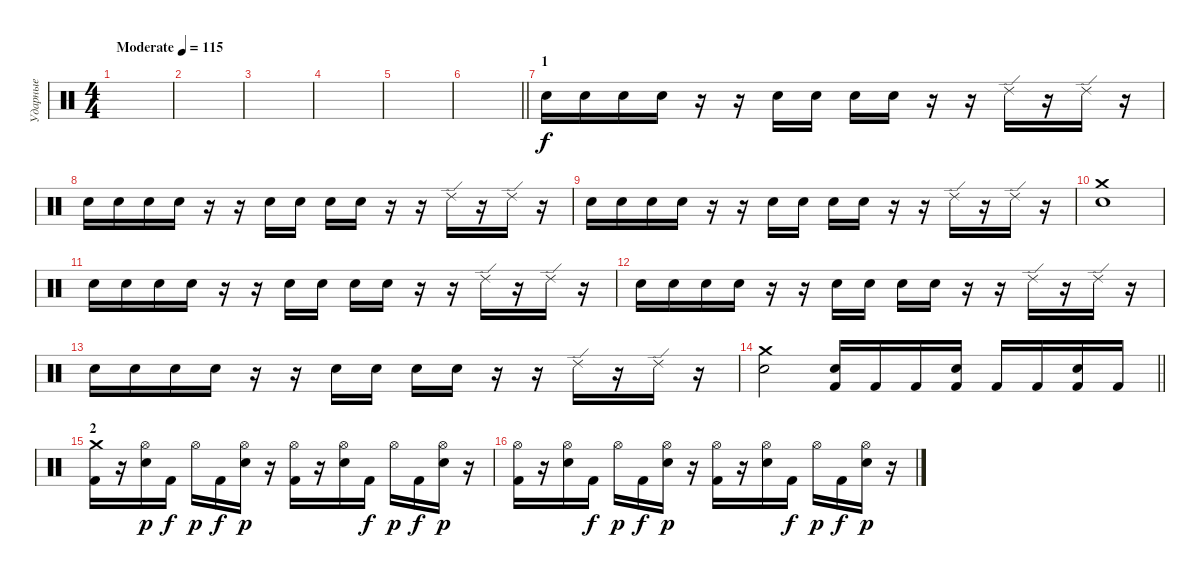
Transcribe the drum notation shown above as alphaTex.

\track ("Ударные" "Ударные") {instrument percussion}
\staff {score}
\articulation defaults
\ts (4 4)
\tempo (115 "Moderate")
\clef neutral
\ks c
|
|
|
|
|
\barLineRight lightlight
|
\section ("" "1")
"Snare (hit) 2".16 "Snare (hit) 2".16 "Snare (hit) 2".16 "Snare (hit) 2".16 r.16 r.16 "Snare (hit) 2".16 "Snare (hit) 2".16 "Snare (hit) 2".16 "Snare (hit) 2".16 r.16 r.16 "Ride (edge) 2".16 r.16 "Ride (edge) 2".16 r.16 |
"Snare (hit) 2".16 "Snare (hit) 2".16 "Snare (hit) 2".16 "Snare (hit) 2".16 r.16 r.16 "Snare (hit) 2".16 "Snare (hit) 2".16 "Snare (hit) 2".16 "Snare (hit) 2".16 r.16 r.16 "Ride (edge) 2".16 r.16 "Ride (edge) 2".16 r.16 |
"Snare (hit) 2".16 "Snare (hit) 2".16 "Snare (hit) 2".16 "Snare (hit) 2".16 r.16 r.16 "Snare (hit) 2".16 "Snare (hit) 2".16 "Snare (hit) 2".16 "Snare (hit) 2".16 r.16 r.16 "Ride (edge) 2".16 r.16 "Ride (edge) 2".16 r.16 |
("Crash medium (hit)" "Snare (hit) 2").1 |
"Snare (hit) 2".16 "Snare (hit) 2".16 "Snare (hit) 2".16 "Snare (hit) 2".16 r.16 r.16 "Snare (hit) 2".16 "Snare (hit) 2".16 "Snare (hit) 2".16 "Snare (hit) 2".16 r.16 r.16 "Ride (edge) 2".16 r.16 "Ride (edge) 2".16 r.16 |
"Snare (hit) 2".16 "Snare (hit) 2".16 "Snare (hit) 2".16 "Snare (hit) 2".16 r.16 r.16 "Snare (hit) 2".16 "Snare (hit) 2".16 "Snare (hit) 2".16 "Snare (hit) 2".16 r.16 r.16 "Ride (edge) 2".16 r.16 "Ride (edge) 2".16 r.16 |
"Snare (hit) 2".16 "Snare (hit) 2".16 "Snare (hit) 2".16 "Snare (hit) 2".16 r.16 r.16 "Snare (hit) 2".16 "Snare (hit) 2".16 "Snare (hit) 2".16 "Snare (hit) 2".16 r.16 r.16 "Ride (edge) 2".16 r.16 "Ride (edge) 2".16 r.16 |
\barLineRight lightlight
("Crash medium (hit)" "Snare (hit) 2").2 ("Snare (hit) 2" "Kick (hit) 2").16 "Kick (hit) 2".16 "Kick (hit) 2".16 ("Snare (hit) 2" "Kick (hit) 2").16 "Kick (hit) 2".16 "Kick (hit) 2".16 ("Snare (hit) 2" "Kick (hit) 2").16 "Kick (hit) 2".16 |
\section ("" "2")
("Crash medium (hit)" "Kick (hit) 2").16 r.16 ("Hi-Hat (open)" "Snare (hit) 2").16{dy p} "Kick (hit) 2".16{dy f} "Hi-Hat (open)".16{dy p} "Kick (hit) 2".16{dy f} ("Hi-Hat (open)" "Snare (hit) 2").16{dy p} r.16 ("Hi-Hat (open)" "Kick (hit) 2").16 r.16 ("Hi-Hat (open)" "Snare (hit) 2").16 "Kick (hit) 2".16{dy f} "Hi-Hat (open)".16{dy p} "Kick (hit) 2".16{dy f} ("Hi-Hat (open)" "Snare (hit) 2").16{dy p} r.16 |
("Hi-Hat (open)" "Kick (hit) 2").16 r.16 ("Hi-Hat (open)" "Snare (hit) 2").16 "Kick (hit) 2".16{dy f} "Hi-Hat (open)".16{dy p} "Kick (hit) 2".16{dy f} ("Hi-Hat (open)" "Snare (hit) 2").16{dy p} r.16 ("Hi-Hat (open)" "Kick (hit) 2").16 r.16 ("Hi-Hat (open)" "Snare (hit) 2").16 "Kick (hit) 2".16{dy f} "Hi-Hat (open)".16{dy p} "Kick (hit) 2".16{dy f} ("Hi-Hat (open)" "Snare (hit) 2").16{dy p} r.16
